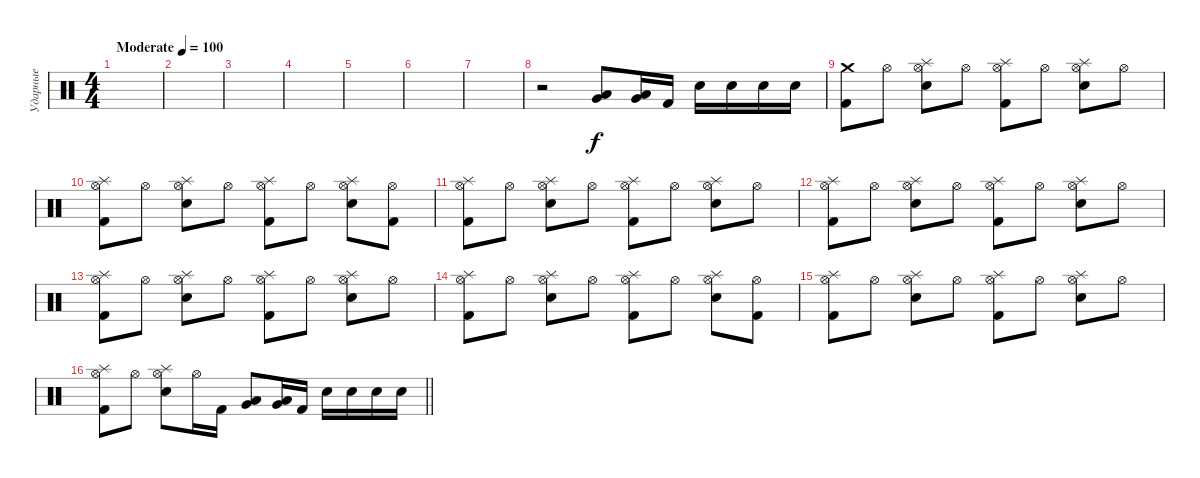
\track ("Ударные" "Ударные") {instrument percussion}
\staff {score}
\articulation defaults
\ts (4 4)
\tempo (100 "Moderate")
\clef neutral
\ks c
|
|
|
|
|
|
|
r.2 ("Very Low Tom (hit)" "Low Floor Tom (hit)").8 ("Very Low Tom (hit)" "Low Floor Tom (hit)").16 "Kick (hit) 2".16 "Snare (hit) 2".16 "Snare (hit) 2".16 "Snare (hit) 2".16 "Snare (hit) 2".16 |
("Crash medium (hit)" "Kick (hit) 2").8 "Hi-Hat (open)".8 ("Hi-Hat (open)" "Splash (hit)" "Snare (hit) 2").8 "Hi-Hat (open)".8 ("Hi-Hat (open)" "Splash (hit)" "Kick (hit) 2").8 "Hi-Hat (open)".8 ("Hi-Hat (open)" "Splash (hit)" "Snare (hit) 2").8 "Hi-Hat (open)".8 |
("Hi-Hat (open)" "Splash (hit)" "Kick (hit) 2").8 "Hi-Hat (open)".8 ("Hi-Hat (open)" "Splash (hit)" "Snare (hit) 2").8 "Hi-Hat (open)".8 ("Hi-Hat (open)" "Splash (hit)" "Kick (hit) 2").8 "Hi-Hat (open)".8 ("Hi-Hat (open)" "Splash (hit)" "Snare (hit) 2").8 ("Hi-Hat (open)" "Kick (hit) 2").8 |
("Hi-Hat (open)" "Splash (hit)" "Kick (hit) 2").8 "Hi-Hat (open)".8 ("Hi-Hat (open)" "Splash (hit)" "Snare (hit) 2").8 "Hi-Hat (open)".8 ("Hi-Hat (open)" "Splash (hit)" "Kick (hit) 2").8 "Hi-Hat (open)".8 ("Hi-Hat (open)" "Splash (hit)" "Snare (hit) 2").8 "Hi-Hat (open)".8 |
("Hi-Hat (open)" "Splash (hit)" "Kick (hit) 2").8 "Hi-Hat (open)".8 ("Hi-Hat (open)" "Splash (hit)" "Snare (hit) 2").8 "Hi-Hat (open)".8 ("Hi-Hat (open)" "Splash (hit)" "Kick (hit) 2").8 "Hi-Hat (open)".8 ("Hi-Hat (open)" "Splash (hit)" "Snare (hit) 2").8 "Hi-Hat (open)".8 |
("Hi-Hat (open)" "Splash (hit)" "Kick (hit) 2").8 "Hi-Hat (open)".8 ("Hi-Hat (open)" "Splash (hit)" "Snare (hit) 2").8 "Hi-Hat (open)".8 ("Hi-Hat (open)" "Splash (hit)" "Kick (hit) 2").8 "Hi-Hat (open)".8 ("Hi-Hat (open)" "Splash (hit)" "Snare (hit) 2").8 "Hi-Hat (open)".8 |
("Hi-Hat (open)" "Splash (hit)" "Kick (hit) 2").8 "Hi-Hat (open)".8 ("Hi-Hat (open)" "Splash (hit)" "Snare (hit) 2").8 "Hi-Hat (open)".8 ("Hi-Hat (open)" "Splash (hit)" "Kick (hit) 2").8 "Hi-Hat (open)".8 ("Hi-Hat (open)" "Splash (hit)" "Snare (hit) 2").8 ("Hi-Hat (open)" "Kick (hit) 2").8 |
("Hi-Hat (open)" "Splash (hit)" "Kick (hit) 2").8 "Hi-Hat (open)".8 ("Hi-Hat (open)" "Splash (hit)" "Snare (hit) 2").8 "Hi-Hat (open)".8 ("Hi-Hat (open)" "Splash (hit)" "Kick (hit) 2").8 "Hi-Hat (open)".8 ("Hi-Hat (open)" "Splash (hit)" "Snare (hit) 2").8 "Hi-Hat (open)".8 |
\barLineRight lightlight
("Hi-Hat (open)" "Splash (hit)" "Kick (hit) 2").8 "Hi-Hat (open)".8 ("Hi-Hat (open)" "Splash (hit)" "Snare (hit) 2").8 "Hi-Hat (open)".16 "Kick (hit) 2".16 ("Very Low Tom (hit)" "Low Floor Tom (hit)").8 ("Very Low Tom (hit)" "Low Floor Tom (hit)").16 "Kick (hit) 2".16 "Snare (hit) 2".16 "Snare (hit) 2".16 "Snare (hit) 2".16 "Snare (hit) 2".16
